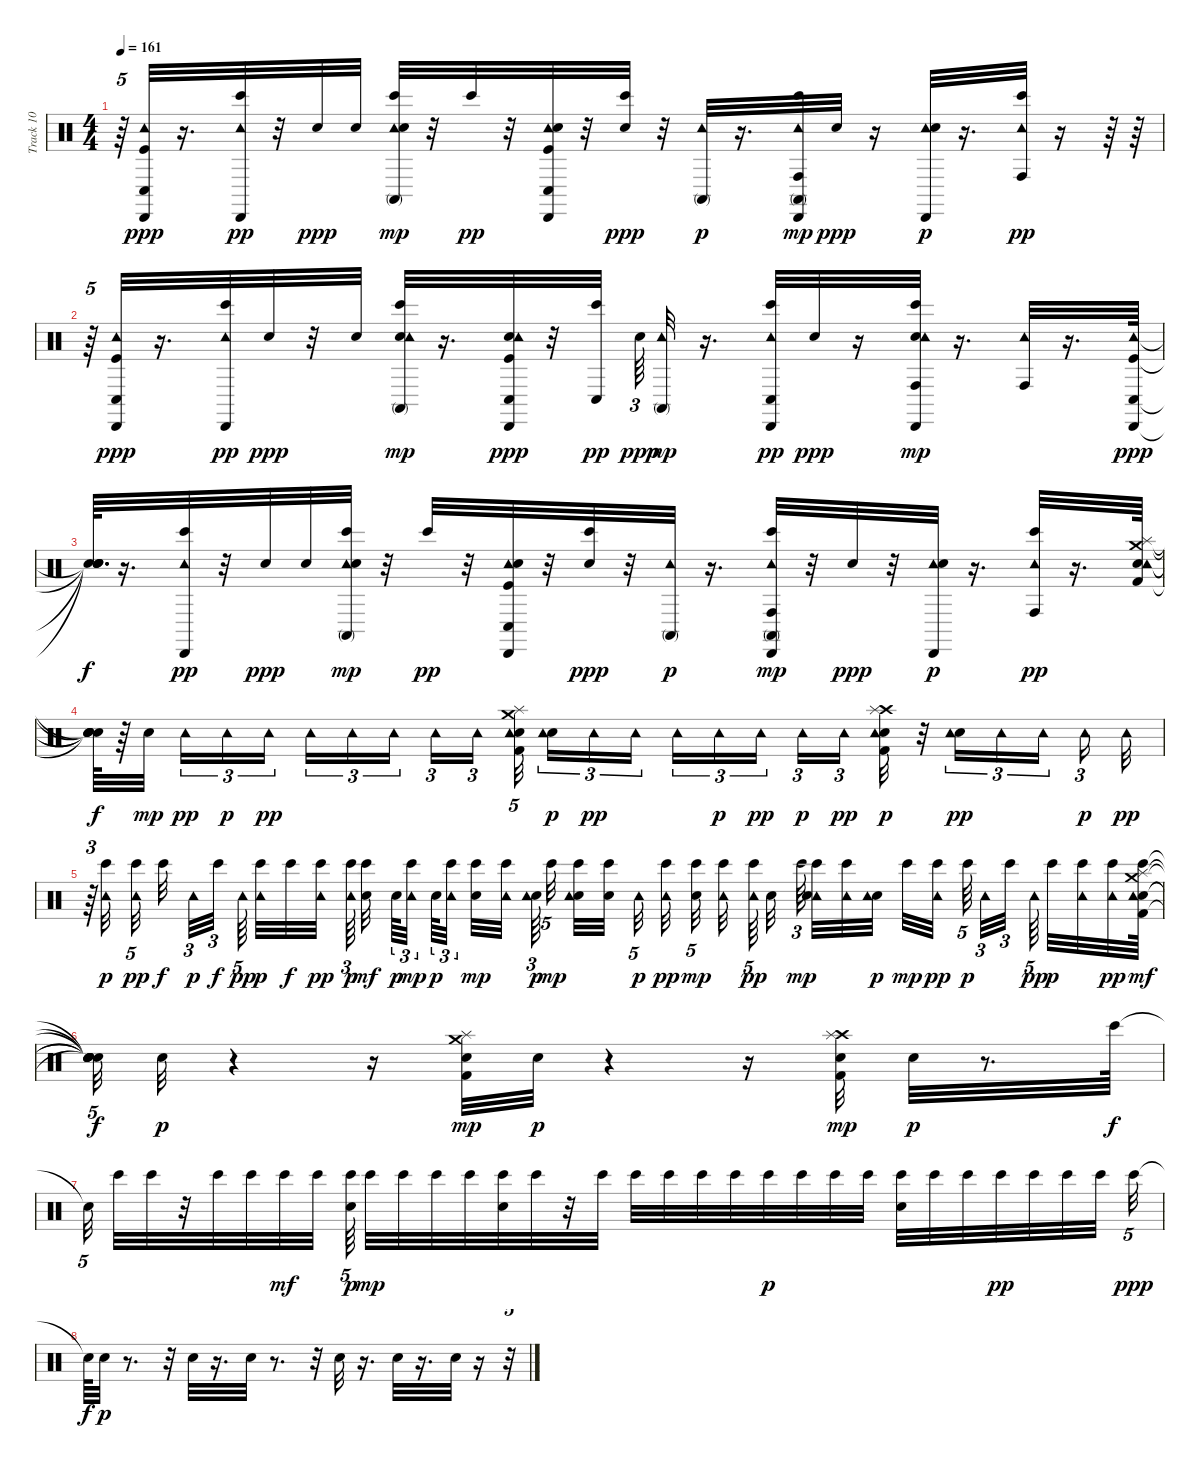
\track ("Track 10" "Track 10") {instrument percussion}
\staff {score}
\articulation defaults
\ts (4 4)
\tempo 161
\clef neutral
\ks c
r.64{tu (5 4) dy mp} ("Kick (hit)" "Tambourine (hit)" "Cabasa (hit)" "Conga low (hit)").32{dy ppp} r.16{d} ("Tambourine (hit)" "Cabasa (hit)" "Bongo High (hit)").32{dy pp} r.32 "Electric Snare (hit)".32{dy ppp} "Electric Snare (hit)".32 ("Tambourine (hit)" "Bongo High (hit)" "Conga high (mute)" "Electric Snare (hit)").32{dy mp} r.32 "Bongo High (hit)".32{dy pp} r.32 ("Tambourine (hit)" "Conga low (hit)" "Cabasa (hit)" "Kick (hit)" "Electric Snare (hit)").32 r.32 ("Bongo High (hit)" "Electric Snare (hit)").32{dy ppp} r.32 ("Tambourine (hit)" "Conga high (mute)").32{dy p} r.16{d} ("Tambourine (hit)" "Cabasa (hit)" "Bongo High (hit)" "Conga high (mute)" "Conga high (hit)").32{dy mp} "Electric Snare (hit)".32{dy ppp} r.16 ("Tambourine (hit)" "Cabasa (hit)" "Electric Snare (hit)").32{dy p} r.16{d} ("Tambourine (hit)" "Conga high (hit)" "Bongo High (hit)").32{dy pp} r.16 r.64 r.64 |
r.64{tu (5 4)} ("Kick (hit)" "Tambourine (hit)" "Cabasa (hit)" "Conga low (hit)").32{dy ppp} r.16{d} ("Tambourine (hit)" "Cabasa (hit)" "Bongo High (hit)").32{dy pp} "Electric Snare (hit)".32{dy ppp} r.32 "Electric Snare (hit)".32 ("Electric Snare (hit)" "Tambourine (hit)" "Bongo High (hit)" "Conga high (mute)").32{dy mp} r.16{d} ("Kick (hit)" "Electric Snare (hit)" "Tambourine (hit)" "Cabasa (hit)" "Conga low (hit)").32{dy ppp} r.32 ("Bongo High (hit)" "Conga low (hit)").32{dy pp beam splitsecondary} "Electric Snare (hit)".64{tu (3 2) dy ppp} ("Tambourine (hit)" "Conga high (mute)").32{dy mp} r.16{d} ("Bongo High (hit)" "Tambourine (hit)" "Cabasa (hit)" "Conga low (hit)").32{dy pp} "Electric Snare (hit)".32{dy ppp} r.16 ("Electric Snare (hit)" "Bongo High (hit)" "Tambourine (hit)" "Cabasa (hit)" "Conga high (hit)").32{dy mp} r.16{d} ("Tambourine (hit)" "Conga high (hit)").32 r.16{d} ("Kick (hit)" "Tambourine (hit)" "Cabasa (hit)" "Conga low (hit)").64{dy ppp} |
("Snare (hit)"{t} "Snare (hit)"{t} "Snare (hit)"{t} "Snare (hit)"{t}).64{d dy f} r.16{d} ("Tambourine (hit)" "Cabasa (hit)" "Bongo High (hit)").32{dy pp} r.32 "Electric Snare (hit)".32{dy ppp} "Electric Snare (hit)".32 ("Tambourine (hit)" "Bongo High (hit)" "Conga high (mute)" "Electric Snare (hit)").32{dy mp} r.32 "Bongo High (hit)".32{dy pp} r.32 ("Tambourine (hit)" "Conga low (hit)" "Cabasa (hit)" "Kick (hit)" "Electric Snare (hit)").32 r.32 ("Bongo High (hit)" "Electric Snare (hit)").32{dy ppp} r.32 ("Tambourine (hit)" "Conga high (mute)").32{dy p} r.16{d} ("Tambourine (hit)" "Cabasa (hit)" "Bongo High (hit)" "Conga high (mute)" "Conga high (hit)").32{dy mp} r.32 "Electric Snare (hit)".32{dy ppp} r.32 ("Tambourine (hit)" "Cabasa (hit)" "Electric Snare (hit)").32{dy p} r.16{d} ("Tambourine (hit)" "Conga high (hit)" "Bongo High (hit)").32{dy pp} r.16{d} ("Splash (hit)" "Kick (hit) 2" "Electric Snare (hit)" "Crash medium (hit)" "Tambourine (hit)").64 |
("Snare (hit)"{t} "Snare (hit)"{t} "Snare (hit)"{t} "Snare (hit)"{t} "Snare (hit)"{t}).64{dy f} r.64 "Electric Snare (hit)".32{dy mp beam splitsecondary} "Tambourine (hit)".16{tu (3 2) dy pp} "Tambourine (hit)".16{tu (3 2) dy p} "Tambourine (hit)".16{tu (3 2) dy pp beam splitsecondary} "Tambourine (hit)".16{tu (3 2)} "Tambourine (hit)".16{tu (3 2)} "Tambourine (hit)".16{tu (3 2) beam splitsecondary} "Tambourine (hit)".16{tu (3 2)} "Tambourine (hit)".16{tu (3 2)} ("Crash medium (hit)" "Electric Snare (hit)" "Splash (hit)" "Kick (hit) 2" "Tambourine (hit)").32{tu (5 4)} ("Electric Snare (hit)" "Tambourine (hit)").16{tu (3 2) dy p} "Tambourine (hit)".16{tu (3 2) dy pp} "Tambourine (hit)".16{tu (3 2) beam splitsecondary} "Tambourine (hit)".16{tu (3 2)} "Tambourine (hit)".16{tu (3 2) dy p} "Tambourine (hit)".16{tu (3 2) dy pp beam splitsecondary} "Tambourine (hit)".16{tu (3 2) dy p} "Tambourine (hit)".16{tu (3 2) dy pp} ("Crash high (hit)" "Electric Snare (hit)" "Kick (hit) 2" "Splash (hit)" "Tambourine (hit)").32{dy p} r.32 ("Electric Snare (hit)" "Tambourine (hit)").16{tu (3 2) dy pp} "Tambourine (hit)".16{tu (3 2)} "Tambourine (hit)".16{tu (3 2) beam splitsecondary} "Tambourine (hit)".16{tu (3 2) dy p} "Tambourine (hit)".32{dy pp} |
r.64{tu (3 2)} ("Bongo High (hit)" "Tambourine (hit)").32{dy p beam splitsecondary} ("Bongo High (hit)" "Tambourine (hit)").32{tu (5 4) dy pp beam splitsecondary} "Bongo High (hit)".32{dy f beam splitsecondary} "Tambourine (hit)".32{tu (3 2) dy p} "Bongo High (hit)".32{tu (3 2) dy f} "Tambourine (hit)".64{tu (5 4) dy pp beam splitsecondary} ("Bongo High (hit)" "Tambourine (hit)").32{dy p} "Bongo High (hit)".32{dy f} ("Bongo High (hit)" "Tambourine (hit)").32{dy pp beam splitsecondary} ("Bongo High (hit)" "Tambourine (hit)").64{tu (3 2) dy p} ("Electric Snare (hit)" "Bongo High (hit)").32{dy mf beam splitsecondary} "Electric Snare (hit)".64{tu (3 2) dy p} ("Tambourine (hit)" "Bongo High (hit)").32{tu (3 2) dy mp beam splitsecondary} "Electric Snare (hit)".64{tu (3 2) dy p} ("Bongo High (hit)" "Tambourine (hit)").32{tu (3 2) beam splitsecondary} ("Electric Snare (hit)" "Bongo High (hit)").32{dy mp} ("Tambourine (hit)" "Bongo High (hit)").32{beam splitsecondary} ("Electric Snare (hit)" "Tambourine (hit)").64{tu (3 2) dy p} "Bongo High (hit)".32{tu (5 4) dy mp beam splitsecondary} ("Electric Snare (hit)" "Tambourine (hit)" "Bongo High (hit)").32 ("Electric Snare (hit)" "Bongo High (hit)").32 "Tambourine (hit)".32{tu (5 4) dy p beam splitsecondary} ("Bongo High (hit)" "Tambourine (hit)").32{dy pp beam splitsecondary} ("Electric Snare (hit)" "Bongo High (hit)").32{tu (5 4) dy mp beam splitsecondary} ("Tambourine (hit)" "Bongo High (hit)").32{beam splitsecondary} ("Bongo High (hit)" "Tambourine (hit)").64{tu (5 4) dy pp beam splitsecondary} "Electric Snare (hit)".32{beam splitsecondary} "Bongo High (hit)".64{tu (3 2) dy mp beam splitsecondary} ("Tambourine (hit)" "Electric Snare (hit)" "Bongo High (hit)").32 ("Tambourine (hit)" "Bongo High (hit)").32 ("Electric Snare (hit)" "Tambourine (hit)").32{dy p} "Bongo High (hit)".32{dy mp} ("Bongo High (hit)" "Tambourine (hit)").32{dy pp beam splitsecondary} "Bongo High (hit)".64{tu (5 4) dy p} "Tambourine (hit)".32{tu (3 2)} "Bongo High (hit)".32{tu (3 2)} "Tambourine (hit)".64{tu (5 4) dy pp beam splitsecondary} "Bongo High (hit)".32{dy p} ("Tambourine (hit)" "Bongo High (hit)").32 ("Bongo High (hit)" "Tambourine (hit)").32{dy pp} ("Bongo High (hit)" "Crash medium (hit)" "Electric Snare (hit)" "Kick (hit) 2" "Tambourine (hit)" "Splash (hit)").64{dy mf} |
("Snare (hit)"{t} "Snare (hit)"{t} "Snare (hit)"{t} "Snare (hit)"{t} "Snare (hit)"{t} "Snare (hit)"{t}).32{tu (5 4) dy f} "Electric Snare (hit)".32{dy p} r.4 r.16 ("Crash medium (hit)" "Splash (hit)" "Kick (hit) 2" "Electric Snare (hit)").32{dy mp} "Electric Snare (hit)".32{dy p} r.4 r.16 ("Crash high (hit)" "Splash (hit)" "Electric Snare (hit)" "Kick (hit) 2").32{dy mp} "Electric Snare (hit)".32{dy p} r.8{d} "Bongo High (hit)".64{dy f} |
"Snare (hit)"{t}.32{tu (5 4) beam splitsecondary} "Bongo High (hit)".32 "Bongo High (hit)".32 r.32 "Bongo High (hit)".32 "Bongo High (hit)".32 "Bongo High (hit)".32{dy mf} "Bongo High (hit)".32{beam splitsecondary} ("Bongo High (hit)" "Electric Snare (hit)").64{tu (5 4) dy p} "Bongo High (hit)".32{dy mp} "Bongo High (hit)".32 "Bongo High (hit)".32 "Bongo High (hit)".32 ("Electric Snare (hit)" "Bongo High (hit)").32 "Bongo High (hit)".32 r.32 "Bongo High (hit)".32 "Bongo High (hit)".32 "Bongo High (hit)".32 "Bongo High (hit)".32 "Bongo High (hit)".32 "Bongo High (hit)".32{dy p} "Bongo High (hit)".32 "Bongo High (hit)".32 "Bongo High (hit)".32 ("Electric Snare (hit)" "Bongo High (hit)").32 "Bongo High (hit)".32 "Bongo High (hit)".32 "Bongo High (hit)".32{dy pp} "Bongo High (hit)".32 "Bongo High (hit)".32 "Bongo High (hit)".32{beam splitsecondary} "Bongo High (hit)".32{tu (5 4) dy ppp} |
"Snare (hit)"{t}.64{dy f} "Electric Snare (hit)".32{dy p} r.8{d} r.32 "Electric Snare (hit)".32 r.16{d} "Electric Snare (hit)".32 r.8{d} r.32 "Electric Snare (hit)".32 r.16{d} "Electric Snare (hit)".32 r.16{d} "Electric Snare (hit)".32 r.16 r.32{tu (5 4)}
